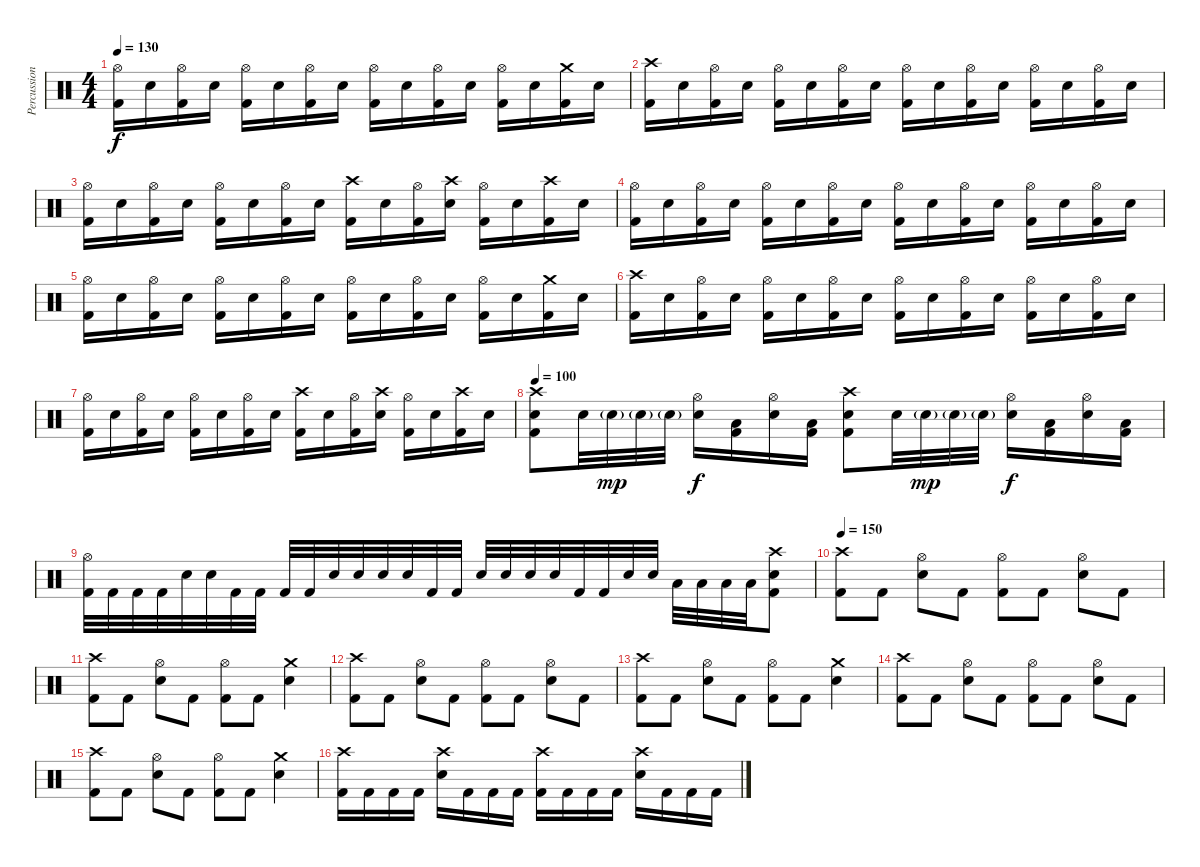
\track ("Percussion" "Percussion") {instrument percussion}
\staff {score}
\articulation defaults
\ts (4 4)
\tempo 130
\clef neutral
\ks c
("Hi-Hat (open)" "Kick (hit) 2").16{dy f} "Electric Snare (hit)".16 ("Hi-Hat (open)" "Kick (hit) 2").16 "Electric Snare (hit)".16 ("Hi-Hat (open)" "Kick (hit) 2").16 "Electric Snare (hit)".16 ("Hi-Hat (open)" "Kick (hit) 2").16 "Electric Snare (hit)".16 ("Hi-Hat (open)" "Kick (hit) 2").16 "Electric Snare (hit)".16 ("Hi-Hat (open)" "Kick (hit) 2").16 "Electric Snare (hit)".16 ("Hi-Hat (open)" "Kick (hit) 2").16 "Electric Snare (hit)".16 ("Crash medium (hit)" "Kick (hit) 2").16 "Electric Snare (hit)".16 |
("Crash high (hit)" "Kick (hit) 2").16 "Electric Snare (hit)".16 ("Hi-Hat (open)" "Kick (hit) 2").16 "Electric Snare (hit)".16 ("Hi-Hat (open)" "Kick (hit) 2").16 "Electric Snare (hit)".16 ("Hi-Hat (open)" "Kick (hit) 2").16 "Electric Snare (hit)".16 ("Hi-Hat (open)" "Kick (hit) 2").16 "Electric Snare (hit)".16 ("Hi-Hat (open)" "Kick (hit) 2").16 "Electric Snare (hit)".16 ("Hi-Hat (open)" "Kick (hit) 2").16 "Electric Snare (hit)".16 ("Hi-Hat (open)" "Kick (hit) 2").16 "Electric Snare (hit)".16 |
("Hi-Hat (open)" "Kick (hit) 2").16 "Electric Snare (hit)".16 ("Hi-Hat (open)" "Kick (hit) 2").16 "Electric Snare (hit)".16 ("Hi-Hat (open)" "Kick (hit) 2").16 "Electric Snare (hit)".16 ("Hi-Hat (open)" "Kick (hit) 2").16 "Electric Snare (hit)".16 ("Crash high (hit)" "Kick (hit) 2").16 "Electric Snare (hit)".16 ("Hi-Hat (open)" "Kick (hit) 2").16 ("Crash high (hit)" "Electric Snare (hit)").16 ("Hi-Hat (open)" "Kick (hit) 2").16 "Electric Snare (hit)".16 ("Crash high (hit)" "Kick (hit) 2").16 "Electric Snare (hit)".16 |
("Hi-Hat (open)" "Kick (hit) 2").16 "Electric Snare (hit)".16 ("Hi-Hat (open)" "Kick (hit) 2").16 "Electric Snare (hit)".16 ("Hi-Hat (open)" "Kick (hit) 2").16 "Electric Snare (hit)".16 ("Hi-Hat (open)" "Kick (hit) 2").16 "Electric Snare (hit)".16 ("Hi-Hat (open)" "Kick (hit) 2").16 "Electric Snare (hit)".16 ("Hi-Hat (open)" "Kick (hit) 2").16 "Electric Snare (hit)".16 ("Hi-Hat (open)" "Kick (hit) 2").16 "Electric Snare (hit)".16 ("Hi-Hat (open)" "Kick (hit) 2").16 "Electric Snare (hit)".16 |
("Hi-Hat (open)" "Kick (hit) 2").16 "Electric Snare (hit)".16 ("Hi-Hat (open)" "Kick (hit) 2").16 "Electric Snare (hit)".16 ("Hi-Hat (open)" "Kick (hit) 2").16 "Electric Snare (hit)".16 ("Hi-Hat (open)" "Kick (hit) 2").16 "Electric Snare (hit)".16 ("Hi-Hat (open)" "Kick (hit) 2").16 "Electric Snare (hit)".16 ("Hi-Hat (open)" "Kick (hit) 2").16 "Electric Snare (hit)".16 ("Hi-Hat (open)" "Kick (hit) 2").16 "Electric Snare (hit)".16 ("Crash medium (hit)" "Kick (hit) 2").16 "Electric Snare (hit)".16 |
("Crash high (hit)" "Kick (hit) 2").16 "Electric Snare (hit)".16 ("Hi-Hat (open)" "Kick (hit) 2").16 "Electric Snare (hit)".16 ("Hi-Hat (open)" "Kick (hit) 2").16 "Electric Snare (hit)".16 ("Hi-Hat (open)" "Kick (hit) 2").16 "Electric Snare (hit)".16 ("Hi-Hat (open)" "Kick (hit) 2").16 "Electric Snare (hit)".16 ("Hi-Hat (open)" "Kick (hit) 2").16 "Electric Snare (hit)".16 ("Hi-Hat (open)" "Kick (hit) 2").16 "Electric Snare (hit)".16 ("Hi-Hat (open)" "Kick (hit) 2").16 "Electric Snare (hit)".16 |
("Hi-Hat (open)" "Kick (hit) 2").16 "Electric Snare (hit)".16 ("Hi-Hat (open)" "Kick (hit) 2").16 "Electric Snare (hit)".16 ("Hi-Hat (open)" "Kick (hit) 2").16 "Electric Snare (hit)".16 ("Hi-Hat (open)" "Kick (hit) 2").16 "Electric Snare (hit)".16 ("Crash high (hit)" "Kick (hit) 2").16 "Electric Snare (hit)".16 ("Hi-Hat (open)" "Kick (hit) 2").16 ("Crash high (hit)" "Electric Snare (hit)").16 ("Hi-Hat (open)" "Kick (hit) 2").16 "Electric Snare (hit)".16 ("Crash high (hit)" "Kick (hit) 2").16 "Electric Snare (hit)".16 |
\tempo 100
("Crash high (hit)" "Electric Snare (hit)" "Kick (hit) 2").8 "Electric Snare (hit)".32 "Electric Snare (hit)"{g}.32{dy mp} "Electric Snare (hit)"{g}.32 "Electric Snare (hit)"{g}.32 ("Hi-Hat (open)" "Electric Snare (hit)").16{dy f} ("Low Tom (hit)" "Kick (hit) 2").16 ("Hi-Hat (open)" "Electric Snare (hit)").16 ("Low Tom (hit)" "Kick (hit) 2").16 ("Crash high (hit)" "Electric Snare (hit)" "Kick (hit) 2").8 "Electric Snare (hit)".32 "Electric Snare (hit)"{g}.32{dy mp} "Electric Snare (hit)"{g}.32 "Electric Snare (hit)"{g}.32 ("Hi-Hat (open)" "Electric Snare (hit)").16{dy f} ("Low Tom (hit)" "Kick (hit) 2").16 ("Hi-Hat (open)" "Electric Snare (hit)").16 ("Low Tom (hit)" "Kick (hit) 2").16 |
("Hi-Hat (open)" "Kick (hit) 2").32 "Kick (hit) 2".32 "Kick (hit) 2".32 "Kick (hit) 2".32 "Electric Snare (hit)".32 "Electric Snare (hit)".32 "Kick (hit) 2".32 "Kick (hit) 2".32 "Kick (hit) 2".32 "Kick (hit) 2".32 "Electric Snare (hit)".32 "Electric Snare (hit)".32 "Electric Snare (hit)".32 "Electric Snare (hit)".32 "Kick (hit) 2".32 "Kick (hit) 2".32 "Electric Snare (hit)".32 "Electric Snare (hit)".32 "Electric Snare (hit)".32 "Electric Snare (hit)".32 "Kick (hit) 2".32 "Kick (hit) 2".32 "Electric Snare (hit)".32 "Electric Snare (hit)".32 "Low Tom (hit)".32 "Low Tom (hit)".32 "Low Tom (hit)".32 "Low Tom (hit)".32 ("Crash high (hit)" "Kick (hit) 2" "Electric Snare (hit)").8 |
\tempo 150
("Crash high (hit)" "Kick (hit) 2").8 "Kick (hit) 2".8 ("Hi-Hat (open)" "Electric Snare (hit)").8 "Kick (hit) 2".8 ("Hi-Hat (open)" "Kick (hit) 2").8 "Kick (hit) 2".8 ("Hi-Hat (open)" "Electric Snare (hit)").8 "Kick (hit) 2".8 |
("Crash high (hit)" "Kick (hit) 2").8 "Kick (hit) 2".8 ("Hi-Hat (open)" "Electric Snare (hit)").8 "Kick (hit) 2".8 ("Hi-Hat (open)" "Kick (hit) 2").8 "Kick (hit) 2".8 ("Crash medium (hit)" "Electric Snare (hit)").4 |
("Crash high (hit)" "Kick (hit) 2").8 "Kick (hit) 2".8 ("Hi-Hat (open)" "Electric Snare (hit)").8 "Kick (hit) 2".8 ("Hi-Hat (open)" "Kick (hit) 2").8 "Kick (hit) 2".8 ("Hi-Hat (open)" "Electric Snare (hit)").8 "Kick (hit) 2".8 |
("Crash high (hit)" "Kick (hit) 2").8 "Kick (hit) 2".8 ("Hi-Hat (open)" "Electric Snare (hit)").8 "Kick (hit) 2".8 ("Hi-Hat (open)" "Kick (hit) 2").8 "Kick (hit) 2".8 ("Crash medium (hit)" "Electric Snare (hit)").4 |
("Crash high (hit)" "Kick (hit) 2").8 "Kick (hit) 2".8 ("Hi-Hat (open)" "Electric Snare (hit)").8 "Kick (hit) 2".8 ("Hi-Hat (open)" "Kick (hit) 2").8 "Kick (hit) 2".8 ("Hi-Hat (open)" "Electric Snare (hit)").8 "Kick (hit) 2".8 |
("Crash high (hit)" "Kick (hit) 2").8 "Kick (hit) 2".8 ("Hi-Hat (open)" "Electric Snare (hit)").8 "Kick (hit) 2".8 ("Hi-Hat (open)" "Kick (hit) 2").8 "Kick (hit) 2".8 ("Crash medium (hit)" "Electric Snare (hit)").4 |
("Crash high (hit)" "Kick (hit) 2").16 "Kick (hit) 2".16 "Kick (hit) 2".16 "Kick (hit) 2".16 ("Crash high (hit)" "Electric Snare (hit)").16 "Kick (hit) 2".16 "Kick (hit) 2".16 "Kick (hit) 2".16 ("Crash high (hit)" "Kick (hit) 2").16 "Kick (hit) 2".16 "Kick (hit) 2".16 "Kick (hit) 2".16 ("Crash high (hit)" "Electric Snare (hit)").16 "Kick (hit) 2".16 "Kick (hit) 2".16 "Kick (hit) 2".16
